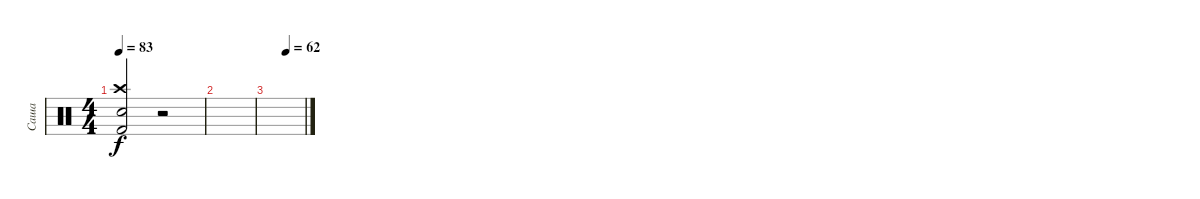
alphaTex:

\track ("Саша" "Саша") {instrument percussion}
\staff {score}
\articulation defaults
\ts (4 4)
\tempo 83
\clef neutral
\ks c
("Kick (hit) 2" "Crash high (hit)" "Snare (hit) 2").2{dy f} r.2 |
|
\tempo (62 0.5)
